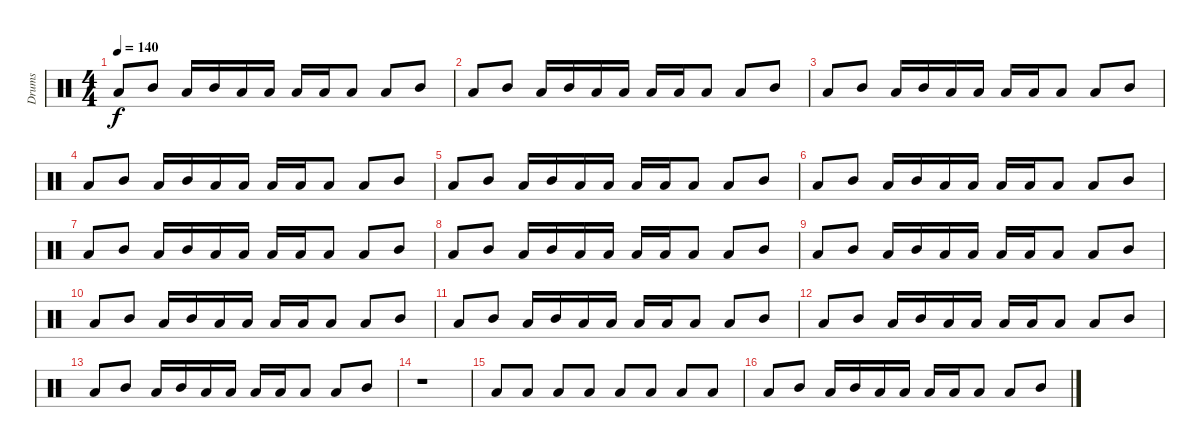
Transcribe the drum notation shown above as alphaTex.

\track ("Drums" "Drums") {instrument percussion}
\staff {score}
\articulation defaults
\ts (4 4)
\tempo 140
\clef neutral
\ks c "Low Tom (hit)".8{dy f} "Mid Tom (hit)".8 "Low Tom (hit)".16 "Mid Tom (hit)".16 "Low Tom (hit)".16 "Low Tom (hit)".16 "Low Tom (hit)".16 "Low Tom (hit)".16 "Low Tom (hit)".8 "Low Tom (hit)".8 "Mid Tom (hit)".8
|
"Low Tom (hit)".8 "Mid Tom (hit)".8 "Low Tom (hit)".16 "Mid Tom (hit)".16 "Low Tom (hit)".16 "Low Tom (hit)".16 "Low Tom (hit)".16 "Low Tom (hit)".16 "Low Tom (hit)".8 "Low Tom (hit)".8 "Mid Tom (hit)".8 |
"Low Tom (hit)".8 "Mid Tom (hit)".8 "Low Tom (hit)".16 "Mid Tom (hit)".16 "Low Tom (hit)".16 "Low Tom (hit)".16 "Low Tom (hit)".16 "Low Tom (hit)".16 "Low Tom (hit)".8 "Low Tom (hit)".8 "Mid Tom (hit)".8 |
"Low Tom (hit)".8 "Mid Tom (hit)".8 "Low Tom (hit)".16 "Mid Tom (hit)".16 "Low Tom (hit)".16 "Low Tom (hit)".16 "Low Tom (hit)".16 "Low Tom (hit)".16 "Low Tom (hit)".8 "Low Tom (hit)".8 "Mid Tom (hit)".8 |
"Low Tom (hit)".8 "Mid Tom (hit)".8 "Low Tom (hit)".16 "Mid Tom (hit)".16 "Low Tom (hit)".16 "Low Tom (hit)".16 "Low Tom (hit)".16 "Low Tom (hit)".16 "Low Tom (hit)".8 "Low Tom (hit)".8 "Mid Tom (hit)".8 |
"Low Tom (hit)".8 "Mid Tom (hit)".8 "Low Tom (hit)".16 "Mid Tom (hit)".16 "Low Tom (hit)".16 "Low Tom (hit)".16 "Low Tom (hit)".16 "Low Tom (hit)".16 "Low Tom (hit)".8 "Low Tom (hit)".8 "Mid Tom (hit)".8 |
"Low Tom (hit)".8 "Mid Tom (hit)".8 "Low Tom (hit)".16 "Mid Tom (hit)".16 "Low Tom (hit)".16 "Low Tom (hit)".16 "Low Tom (hit)".16 "Low Tom (hit)".16 "Low Tom (hit)".8 "Low Tom (hit)".8 "Mid Tom (hit)".8 |
"Low Tom (hit)".8 "Mid Tom (hit)".8 "Low Tom (hit)".16 "Mid Tom (hit)".16 "Low Tom (hit)".16 "Low Tom (hit)".16 "Low Tom (hit)".16 "Low Tom (hit)".16 "Low Tom (hit)".8 "Low Tom (hit)".8 "Mid Tom (hit)".8 |
"Low Tom (hit)".8 "Mid Tom (hit)".8 "Low Tom (hit)".16 "Mid Tom (hit)".16 "Low Tom (hit)".16 "Low Tom (hit)".16 "Low Tom (hit)".16 "Low Tom (hit)".16 "Low Tom (hit)".8 "Low Tom (hit)".8 "Mid Tom (hit)".8 |
"Low Tom (hit)".8 "Mid Tom (hit)".8 "Low Tom (hit)".16 "Mid Tom (hit)".16 "Low Tom (hit)".16 "Low Tom (hit)".16 "Low Tom (hit)".16 "Low Tom (hit)".16 "Low Tom (hit)".8 "Low Tom (hit)".8 "Mid Tom (hit)".8 |
"Low Tom (hit)".8 "Mid Tom (hit)".8 "Low Tom (hit)".16 "Mid Tom (hit)".16 "Low Tom (hit)".16 "Low Tom (hit)".16 "Low Tom (hit)".16 "Low Tom (hit)".16 "Low Tom (hit)".8 "Low Tom (hit)".8 "Mid Tom (hit)".8 |
"Low Tom (hit)".8 "Mid Tom (hit)".8 "Low Tom (hit)".16 "Mid Tom (hit)".16 "Low Tom (hit)".16 "Low Tom (hit)".16 "Low Tom (hit)".16 "Low Tom (hit)".16 "Low Tom (hit)".8 "Low Tom (hit)".8 "Mid Tom (hit)".8 |
"Low Tom (hit)".8 "Mid Tom (hit)".8 "Low Tom (hit)".16 "Mid Tom (hit)".16 "Low Tom (hit)".16 "Low Tom (hit)".16 "Low Tom (hit)".16 "Low Tom (hit)".16 "Low Tom (hit)".8 "Low Tom (hit)".8 "Mid Tom (hit)".8 |
r.1 |
"Low Tom (hit)".8 "Low Tom (hit)".8 "Low Tom (hit)".8 "Low Tom (hit)".8 "Low Tom (hit)".8 "Low Tom (hit)".8 "Low Tom (hit)".8 "Low Tom (hit)".8 |
"Low Tom (hit)".8 "Mid Tom (hit)".8 "Low Tom (hit)".16 "Mid Tom (hit)".16 "Low Tom (hit)".16 "Low Tom (hit)".16 "Low Tom (hit)".16 "Low Tom (hit)".16 "Low Tom (hit)".8 "Low Tom (hit)".8 "Mid Tom (hit)".8
